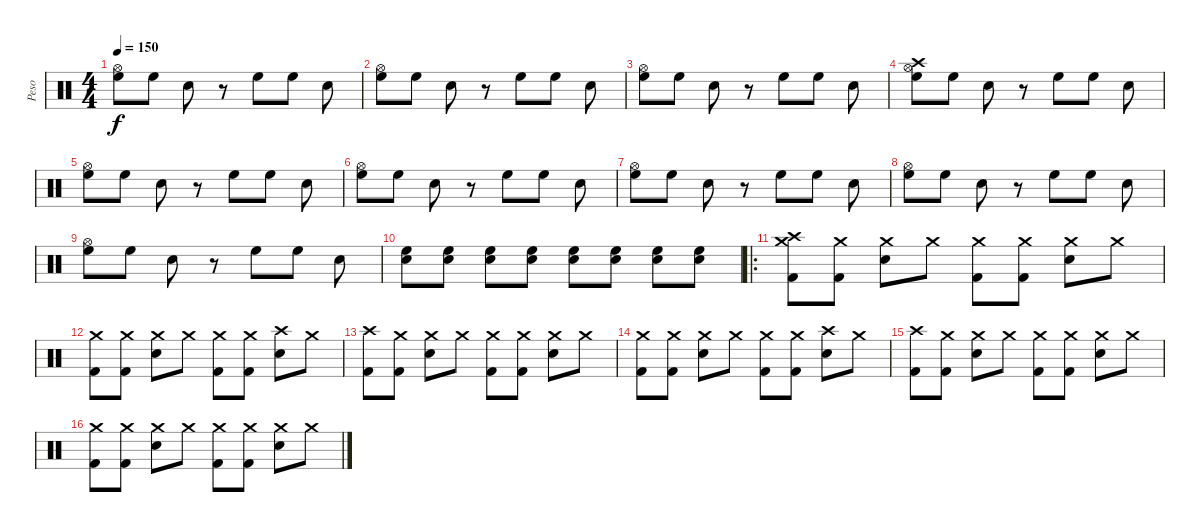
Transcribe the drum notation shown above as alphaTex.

\track ("Peso" "Peso") {instrument percussion}
\staff {score}
\articulation defaults
\ts (4 4)
\tempo 150
\clef neutral
\ks c
("Hi-Hat (open)" "High Floor Tom (hit)").8{dy f} "High Floor Tom (hit)".8 "Snare (hit) 2".8 r.8 "High Floor Tom (hit)".8 "High Floor Tom (hit)".8 "Snare (hit) 2".8 |
("Hi-Hat (open)" "High Floor Tom (hit)").8 "High Floor Tom (hit)".8 "Snare (hit) 2".8 r.8 "High Floor Tom (hit)".8 "High Floor Tom (hit)".8 "Snare (hit) 2".8 |
("Hi-Hat (open)" "High Floor Tom (hit)").8 "High Floor Tom (hit)".8 "Snare (hit) 2".8 r.8 "High Floor Tom (hit)".8 "High Floor Tom (hit)".8 "Snare (hit) 2".8 |
("Crash high (hit)" "Hi-Hat (open)" "High Floor Tom (hit)").8 "High Floor Tom (hit)".8 "Snare (hit) 2".8 r.8 "High Floor Tom (hit)".8 "High Floor Tom (hit)".8 "Snare (hit) 2".8 |
("Hi-Hat (open)" "High Floor Tom (hit)").8 "High Floor Tom (hit)".8 "Snare (hit) 2".8 r.8 "High Floor Tom (hit)".8 "High Floor Tom (hit)".8 "Snare (hit) 2".8 |
("Hi-Hat (open)" "High Floor Tom (hit)").8 "High Floor Tom (hit)".8 "Snare (hit) 2".8 r.8 "High Floor Tom (hit)".8 "High Floor Tom (hit)".8 "Snare (hit) 2".8 |
("Hi-Hat (open)" "High Floor Tom (hit)").8 "High Floor Tom (hit)".8 "Snare (hit) 2".8 r.8 "High Floor Tom (hit)".8 "High Floor Tom (hit)".8 "Snare (hit) 2".8 |
("Hi-Hat (open)" "High Floor Tom (hit)").8 "High Floor Tom (hit)".8 "Snare (hit) 2".8 r.8 "High Floor Tom (hit)".8 "High Floor Tom (hit)".8 "Snare (hit) 2".8 |
("Hi-Hat (open)" "High Floor Tom (hit)").8 "High Floor Tom (hit)".8 "Snare (hit) 2".8 r.8 "High Floor Tom (hit)".8 "High Floor Tom (hit)".8 "Snare (hit) 2".8 |
("High Floor Tom (hit)" "Snare (hit) 2").8{volume 7} ("High Floor Tom (hit)" "Snare (hit) 2").8 ("High Floor Tom (hit)" "Snare (hit) 2").8{volume 10} ("High Floor Tom (hit)" "Snare (hit) 2").8 ("High Floor Tom (hit)" "Snare (hit) 2").8{volume 16} ("High Floor Tom (hit)" "Snare (hit) 2").8 ("High Floor Tom (hit)" "Snare (hit) 2").8 ("High Floor Tom (hit)" "Snare (hit) 2").8 |
\ro
("Crash high (hit)" "Crash medium (hit)" "Kick (hit) 2").8 ("Crash medium (hit)" "Kick (hit) 2").8 ("Crash medium (hit)" "Snare (hit) 2").8 "Crash medium (hit)".8 ("Crash medium (hit)" "Kick (hit) 2").8 ("Crash medium (hit)" "Kick (hit) 2").8 ("Crash medium (hit)" "Snare (hit) 2").8 "Crash medium (hit)".8 |
("Crash medium (hit)" "Kick (hit) 2").8 ("Crash medium (hit)" "Kick (hit) 2").8 ("Crash medium (hit)" "Snare (hit) 2").8 "Crash medium (hit)".8 ("Crash medium (hit)" "Kick (hit) 2").8 ("Crash medium (hit)" "Kick (hit) 2").8 ("Crash high (hit)" "Snare (hit) 2").8 "Crash medium (hit)".8 |
("Crash high (hit)" "Kick (hit) 2").8 ("Crash medium (hit)" "Kick (hit) 2").8 ("Crash medium (hit)" "Snare (hit) 2").8 "Crash medium (hit)".8 ("Crash medium (hit)" "Kick (hit) 2").8 ("Crash medium (hit)" "Kick (hit) 2").8 ("Crash medium (hit)" "Snare (hit) 2").8 "Crash medium (hit)".8 |
("Crash medium (hit)" "Kick (hit) 2").8 ("Crash medium (hit)" "Kick (hit) 2").8 ("Crash medium (hit)" "Snare (hit) 2").8 "Crash medium (hit)".8 ("Crash medium (hit)" "Kick (hit) 2").8 ("Crash medium (hit)" "Kick (hit) 2").8 ("Crash high (hit)" "Snare (hit) 2").8 "Crash medium (hit)".8 |
("Crash high (hit)" "Kick (hit) 2").8 ("Crash medium (hit)" "Kick (hit) 2").8 ("Crash medium (hit)" "Snare (hit) 2").8 "Crash medium (hit)".8 ("Crash medium (hit)" "Kick (hit) 2").8 ("Crash medium (hit)" "Kick (hit) 2").8 ("Crash medium (hit)" "Snare (hit) 2").8 "Crash medium (hit)".8 |
("Crash medium (hit)" "Kick (hit) 2").8 ("Crash medium (hit)" "Kick (hit) 2").8 ("Crash medium (hit)" "Snare (hit) 2").8 "Crash medium (hit)".8 ("Crash medium (hit)" "Kick (hit) 2").8 ("Crash medium (hit)" "Kick (hit) 2").8 ("Crash medium (hit)" "Snare (hit) 2").8 "Crash medium (hit)".8
